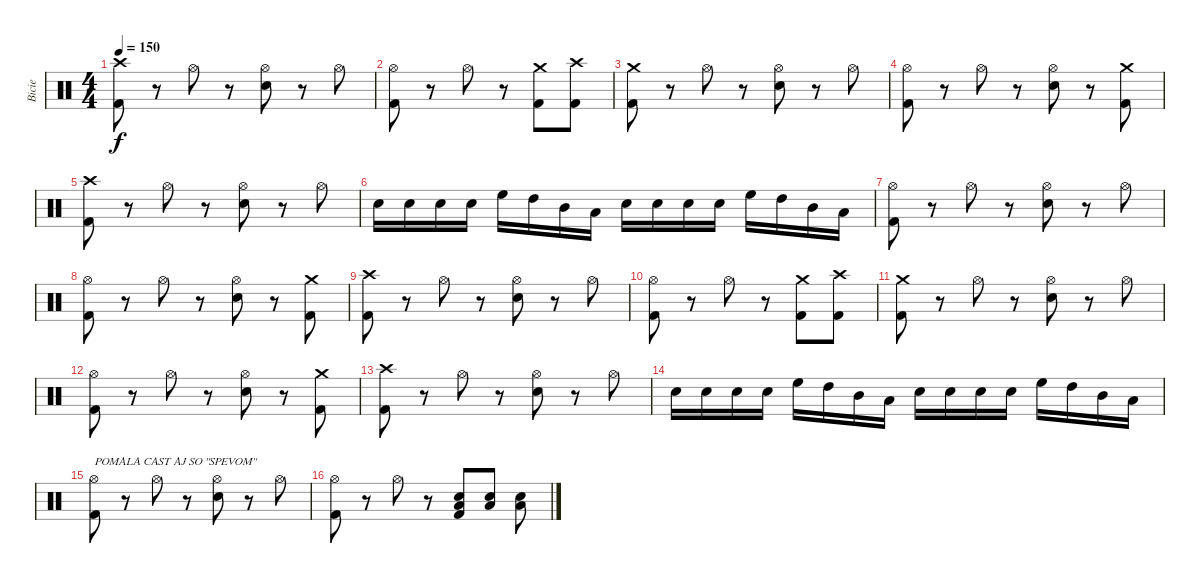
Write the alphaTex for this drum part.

\track ("Bicie" "Bicie") {instrument percussion}
\staff {score}
\articulation defaults
\ts (4 4)
\tempo 150
\clef neutral
\ks c
("Crash high (hit)" "Kick (hit) 2").8{dy f} r.8 "Hi-Hat (open)".8 r.8 ("Hi-Hat (open)" "Snare (hit) 2").8 r.8 "Hi-Hat (open)".8 |
("Hi-Hat (open)" "Kick (hit) 2").8 r.8 "Hi-Hat (open)".8 r.8 ("Crash medium (hit)" "Kick (hit) 2").8 ("Crash high (hit)" "Kick (hit) 2").8 |
("Crash medium (hit)" "Kick (hit) 2").8 r.8 "Hi-Hat (open)".8 r.8 ("Hi-Hat (open)" "Snare (hit) 2").8 r.8 "Hi-Hat (open)".8 |
("Hi-Hat (open)" "Kick (hit) 2").8 r.8 "Hi-Hat (open)".8 r.8 ("Hi-Hat (open)" "Snare (hit) 2").8 r.8 ("Crash medium (hit)" "Kick (hit) 2").8 |
("Crash high (hit)" "Kick (hit) 2").8 r.8 "Hi-Hat (open)".8 r.8 ("Hi-Hat (open)" "Snare (hit) 2").8 r.8 "Hi-Hat (open)".8 |
"Snare (hit) 2".16 "Snare (hit) 2".16 "Snare (hit) 2".16 "Snare (hit) 2".16 "High Floor Tom (hit)".16 "High Tom (hit)".16 "Mid Tom (hit)".16 "Low Tom (hit)".16 "Snare (hit) 2".16 "Snare (hit) 2".16 "Snare (hit) 2".16 "Snare (hit) 2".16 "High Floor Tom (hit)".16 "High Tom (hit)".16 "Mid Tom (hit)".16 "Low Tom (hit)".16 |
("Hi-Hat (open)" "Kick (hit) 2").8 r.8 "Hi-Hat (open)".8 r.8 ("Hi-Hat (open)" "Snare (hit) 2").8 r.8 "Hi-Hat (open)".8 |
("Hi-Hat (open)" "Kick (hit) 2").8 r.8 "Hi-Hat (open)".8 r.8 ("Hi-Hat (open)" "Snare (hit) 2").8 r.8 ("Crash medium (hit)" "Kick (hit) 2").8 |
("Crash high (hit)" "Kick (hit) 2").8 r.8 "Hi-Hat (open)".8 r.8 ("Hi-Hat (open)" "Snare (hit) 2").8 r.8 "Hi-Hat (open)".8 |
("Hi-Hat (open)" "Kick (hit) 2").8 r.8 "Hi-Hat (open)".8 r.8 ("Crash medium (hit)" "Kick (hit) 2").8 ("Crash high (hit)" "Kick (hit) 2").8 |
("Crash medium (hit)" "Kick (hit) 2").8 r.8 "Hi-Hat (open)".8 r.8 ("Hi-Hat (open)" "Snare (hit) 2").8 r.8 "Hi-Hat (open)".8 |
("Hi-Hat (open)" "Kick (hit) 2").8 r.8 "Hi-Hat (open)".8 r.8 ("Hi-Hat (open)" "Snare (hit) 2").8 r.8 ("Crash medium (hit)" "Kick (hit) 2").8 |
("Crash high (hit)" "Kick (hit) 2").8 r.8 "Hi-Hat (open)".8 r.8 ("Hi-Hat (open)" "Snare (hit) 2").8 r.8 "Hi-Hat (open)".8 |
"Snare (hit) 2".16 "Snare (hit) 2".16 "Snare (hit) 2".16 "Snare (hit) 2".16 "High Floor Tom (hit)".16 "High Tom (hit)".16 "Mid Tom (hit)".16 "Low Tom (hit)".16 "Snare (hit) 2".16 "Snare (hit) 2".16 "Snare (hit) 2".16 "Snare (hit) 2".16 "High Floor Tom (hit)".16 "High Tom (hit)".16 "Mid Tom (hit)".16 "Low Tom (hit)".16 |
("Hi-Hat (open)" "Kick (hit) 2").8{txt "POMALA CAST AJ SO \"SPEVOM\""} r.8 "Hi-Hat (open)".8 r.8 ("Hi-Hat (open)" "Snare (hit) 2").8 r.8 "Hi-Hat (open)".8 |
("Hi-Hat (open)" "Kick (hit) 2").8 r.8 "Hi-Hat (open)".8 r.8 ("Low Tom (hit)" "Snare (hit) 2" "Kick (hit) 2").8 ("Low Tom (hit)" "Snare (hit) 2").8 ("Low Tom (hit)" "Snare (hit) 2").8
